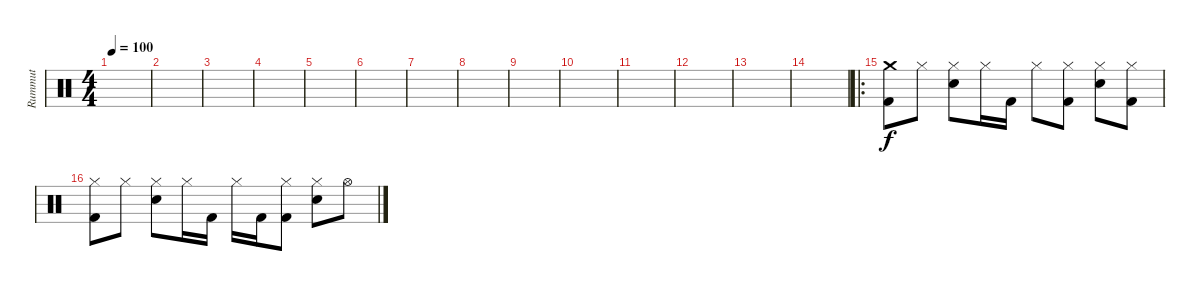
\track ("Rummut" "Rummut") {instrument percussion}
\staff {score}
\articulation defaults
\ts (4 4)
\tempo 100
\clef neutral
\ks c
|
|
|
|
|
|
|
|
|
|
|
|
|
|
\ro
("Crash medium (hit)" "Kick (hit) 2").8 "Hi-Hat (closed)".8 ("Hi-Hat (closed)" "Snare (hit) 2").8 "Hi-Hat (closed)".16 "Kick (hit) 2".16 "Hi-Hat (closed)".8 ("Hi-Hat (closed)" "Kick (hit) 2").8 ("Hi-Hat (closed)" "Snare (hit) 2").8 ("Hi-Hat (closed)" "Kick (hit) 2").8 |
("Hi-Hat (closed)" "Kick (hit) 2").8 "Hi-Hat (closed)".8 ("Hi-Hat (closed)" "Snare (hit) 2").8 "Hi-Hat (closed)".16 "Kick (hit) 2".16 "Hi-Hat (closed)".16 "Kick (hit) 2".16 ("Hi-Hat (closed)" "Kick (hit) 2").8 ("Hi-Hat (closed)" "Snare (hit) 2").8 "Hi-Hat (open)".8
